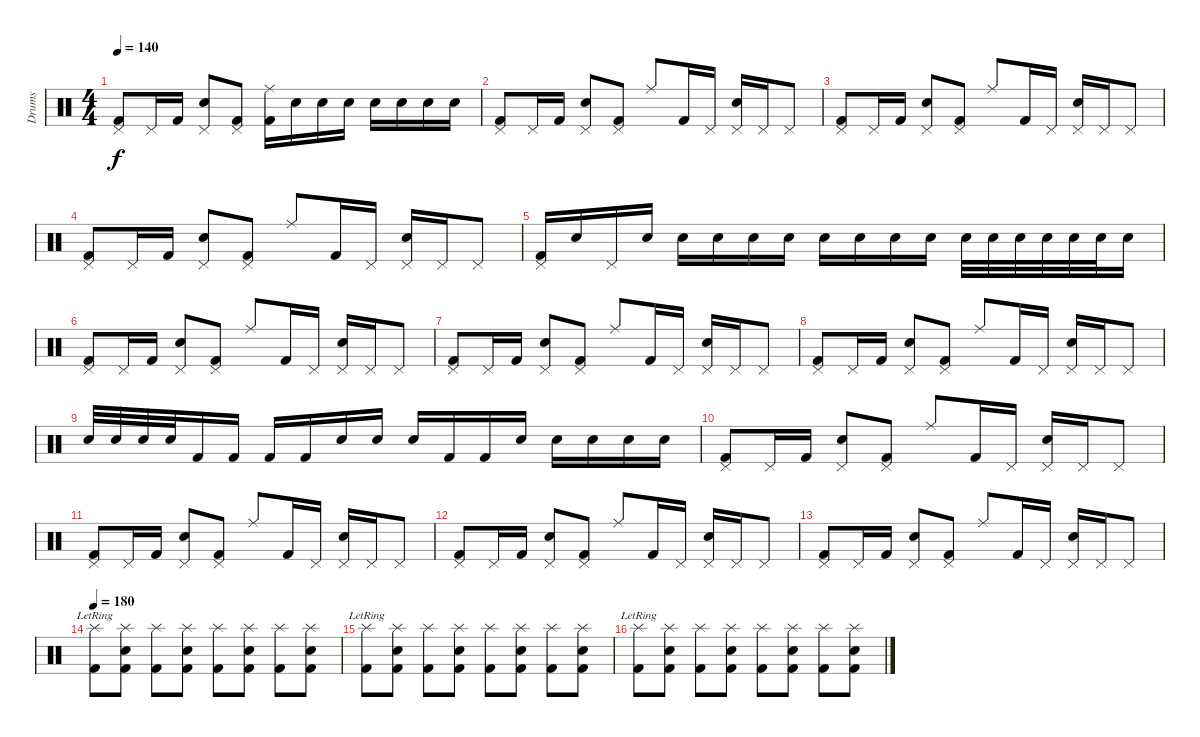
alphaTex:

\track ("Drums" "Drums") {instrument percussion}
\staff {score}
\articulation defaults
\ts (4 4)
\tempo 140
\clef neutral
\ks c
("Pedal Hi-Hat (hit)" "Kick (hit) 2").8{dy f} "Pedal Hi-Hat (hit)".16 "Kick (hit) 2".16 ("Pedal Hi-Hat (hit)" "Electric Snare (hit)").8 ("Pedal Hi-Hat (hit)" "Kick (hit) 2").8 ("Ride (middle)" "Kick (hit) 2").16 "Electric Snare (hit)".16 "Electric Snare (hit)".16 "Electric Snare (hit)".16 "Electric Snare (hit)".16 "Electric Snare (hit)".16 "Electric Snare (hit)".16 "Electric Snare (hit)".16 |
("Pedal Hi-Hat (hit)" "Kick (hit) 2").8 "Pedal Hi-Hat (hit)".16 "Kick (hit) 2".16 ("Pedal Hi-Hat (hit)" "Electric Snare (hit)").8 ("Pedal Hi-Hat (hit)" "Kick (hit) 2").8 "Ride (middle)".8 "Kick (hit) 2".16 "Pedal Hi-Hat (hit)".16 ("Pedal Hi-Hat (hit)" "Electric Snare (hit)").16 "Pedal Hi-Hat (hit)".16 "Pedal Hi-Hat (hit)".8 |
("Pedal Hi-Hat (hit)" "Kick (hit) 2").8 "Pedal Hi-Hat (hit)".16 "Kick (hit) 2".16 ("Pedal Hi-Hat (hit)" "Electric Snare (hit)").8 ("Pedal Hi-Hat (hit)" "Kick (hit) 2").8 "Ride (middle)".8 "Kick (hit) 2".16 "Pedal Hi-Hat (hit)".16 ("Pedal Hi-Hat (hit)" "Electric Snare (hit)").16 "Pedal Hi-Hat (hit)".16 "Pedal Hi-Hat (hit)".8 |
("Pedal Hi-Hat (hit)" "Kick (hit) 2").8 "Pedal Hi-Hat (hit)".16 "Kick (hit) 2".16 ("Pedal Hi-Hat (hit)" "Electric Snare (hit)").8 ("Pedal Hi-Hat (hit)" "Kick (hit) 2").8 "Ride (middle)".8 "Kick (hit) 2".16 "Pedal Hi-Hat (hit)".16 ("Pedal Hi-Hat (hit)" "Electric Snare (hit)").16 "Pedal Hi-Hat (hit)".16 "Pedal Hi-Hat (hit)".8 |
("Pedal Hi-Hat (hit)" "Kick (hit) 2").16 "Electric Snare (hit)".16 "Pedal Hi-Hat (hit)".16 "Electric Snare (hit)".16 "Electric Snare (hit)".16 "Electric Snare (hit)".16 "Electric Snare (hit)".16 "Electric Snare (hit)".16 "Electric Snare (hit)".16 "Electric Snare (hit)".16 "Electric Snare (hit)".16 "Electric Snare (hit)".16 "Electric Snare (hit)".32 "Electric Snare (hit)".32 "Electric Snare (hit)".32 "Electric Snare (hit)".32 "Electric Snare (hit)".32 "Electric Snare (hit)".32 "Electric Snare (hit)".16 |
("Pedal Hi-Hat (hit)" "Kick (hit) 2").8 "Pedal Hi-Hat (hit)".16 "Kick (hit) 2".16 ("Pedal Hi-Hat (hit)" "Electric Snare (hit)").8 ("Pedal Hi-Hat (hit)" "Kick (hit) 2").8 "Ride (middle)".8 "Kick (hit) 2".16 "Pedal Hi-Hat (hit)".16 ("Pedal Hi-Hat (hit)" "Electric Snare (hit)").16 "Pedal Hi-Hat (hit)".16 "Pedal Hi-Hat (hit)".8 |
("Pedal Hi-Hat (hit)" "Kick (hit) 2").8 "Pedal Hi-Hat (hit)".16 "Kick (hit) 2".16 ("Pedal Hi-Hat (hit)" "Electric Snare (hit)").8 ("Pedal Hi-Hat (hit)" "Kick (hit) 2").8 "Ride (middle)".8 "Kick (hit) 2".16 "Pedal Hi-Hat (hit)".16 ("Pedal Hi-Hat (hit)" "Electric Snare (hit)").16 "Pedal Hi-Hat (hit)".16 "Pedal Hi-Hat (hit)".8 |
("Pedal Hi-Hat (hit)" "Kick (hit) 2").8 "Pedal Hi-Hat (hit)".16 "Kick (hit) 2".16 ("Pedal Hi-Hat (hit)" "Electric Snare (hit)").8 ("Pedal Hi-Hat (hit)" "Kick (hit) 2").8 "Ride (middle)".8 "Kick (hit) 2".16 "Pedal Hi-Hat (hit)".16 ("Pedal Hi-Hat (hit)" "Electric Snare (hit)").16 "Pedal Hi-Hat (hit)".16 "Pedal Hi-Hat (hit)".8 |
"Electric Snare (hit)".32 "Electric Snare (hit)".32 "Electric Snare (hit)".32 "Electric Snare (hit)".32 "Kick (hit) 2".16 "Kick (hit) 2".16 "Kick (hit) 2".16 "Kick (hit) 2".16 "Electric Snare (hit)".16 "Electric Snare (hit)".16 "Electric Snare (hit)".16 "Kick (hit) 2".16 "Kick (hit) 2".16 "Electric Snare (hit)".16 "Electric Snare (hit)".16 "Electric Snare (hit)".16 "Electric Snare (hit)".16 "Electric Snare (hit)".16 |
("Pedal Hi-Hat (hit)" "Kick (hit) 2").8 "Pedal Hi-Hat (hit)".16 "Kick (hit) 2".16 ("Pedal Hi-Hat (hit)" "Electric Snare (hit)").8 ("Pedal Hi-Hat (hit)" "Kick (hit) 2").8 "Ride (middle)".8 "Kick (hit) 2".16 "Pedal Hi-Hat (hit)".16 ("Pedal Hi-Hat (hit)" "Electric Snare (hit)").16 "Pedal Hi-Hat (hit)".16 "Pedal Hi-Hat (hit)".8 |
("Pedal Hi-Hat (hit)" "Kick (hit) 2").8 "Pedal Hi-Hat (hit)".16 "Kick (hit) 2".16 ("Pedal Hi-Hat (hit)" "Electric Snare (hit)").8 ("Pedal Hi-Hat (hit)" "Kick (hit) 2").8 "Ride (middle)".8 "Kick (hit) 2".16 "Pedal Hi-Hat (hit)".16 ("Pedal Hi-Hat (hit)" "Electric Snare (hit)").16 "Pedal Hi-Hat (hit)".16 "Pedal Hi-Hat (hit)".8 |
("Pedal Hi-Hat (hit)" "Kick (hit) 2").8 "Pedal Hi-Hat (hit)".16 "Kick (hit) 2".16 ("Pedal Hi-Hat (hit)" "Electric Snare (hit)").8 ("Pedal Hi-Hat (hit)" "Kick (hit) 2").8 "Ride (middle)".8 "Kick (hit) 2".16 "Pedal Hi-Hat (hit)".16 ("Pedal Hi-Hat (hit)" "Electric Snare (hit)").16 "Pedal Hi-Hat (hit)".16 "Pedal Hi-Hat (hit)".8 |
("Pedal Hi-Hat (hit)" "Kick (hit) 2").8 "Pedal Hi-Hat (hit)".16 "Kick (hit) 2".16 ("Pedal Hi-Hat (hit)" "Electric Snare (hit)").8 ("Pedal Hi-Hat (hit)" "Kick (hit) 2").8 "Ride (middle)".8 "Kick (hit) 2".16 "Pedal Hi-Hat (hit)".16 ("Pedal Hi-Hat (hit)" "Electric Snare (hit)").16 "Pedal Hi-Hat (hit)".16 "Pedal Hi-Hat (hit)".8 |
\tempo 180
("Splash (hit)"{lr} "Kick (hit) 2").8 ("Splash (hit)" "Electric Snare (hit)" "Kick (hit) 2").8 ("Splash (hit)" "Kick (hit) 2").8 ("Splash (hit)" "Electric Snare (hit)" "Kick (hit) 2").8 ("Splash (hit)" "Kick (hit) 2").8 ("Splash (hit)" "Electric Snare (hit)" "Kick (hit) 2").8 ("Splash (hit)" "Kick (hit) 2").8 ("Splash (hit)" "Electric Snare (hit)" "Kick (hit) 2").8 |
("Splash (hit)"{lr} "Kick (hit) 2").8 ("Splash (hit)" "Electric Snare (hit)" "Kick (hit) 2").8 ("Splash (hit)" "Kick (hit) 2").8 ("Splash (hit)" "Electric Snare (hit)" "Kick (hit) 2").8 ("Splash (hit)" "Kick (hit) 2").8 ("Splash (hit)" "Electric Snare (hit)" "Kick (hit) 2").8 ("Splash (hit)" "Kick (hit) 2").8 ("Splash (hit)" "Electric Snare (hit)" "Kick (hit) 2").8 |
("Splash (hit)"{lr} "Kick (hit) 2").8 ("Splash (hit)" "Electric Snare (hit)" "Kick (hit) 2").8 ("Splash (hit)" "Kick (hit) 2").8 ("Splash (hit)" "Electric Snare (hit)" "Kick (hit) 2").8 ("Splash (hit)" "Kick (hit) 2").8 ("Splash (hit)" "Electric Snare (hit)" "Kick (hit) 2").8 ("Splash (hit)" "Kick (hit) 2").8 ("Splash (hit)" "Electric Snare (hit)" "Kick (hit) 2").8
